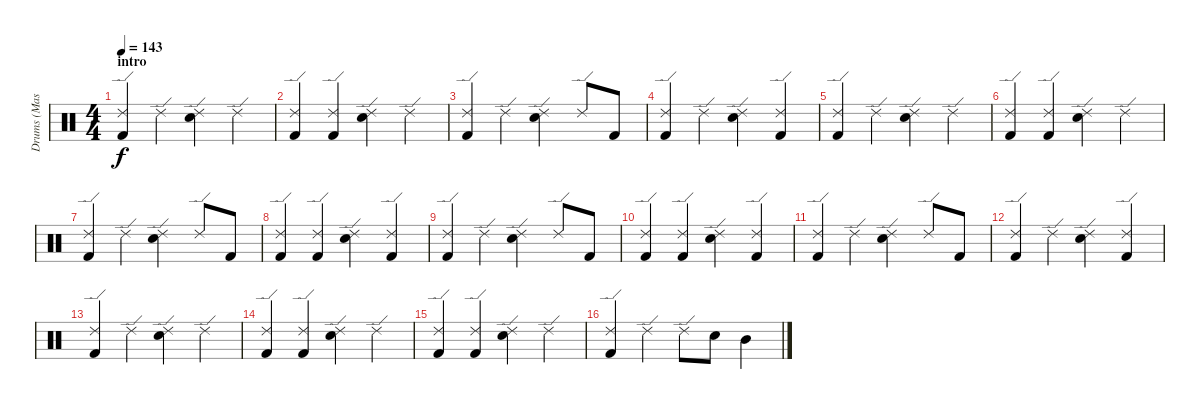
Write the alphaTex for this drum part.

\track ("Drums (Mason)" "Drums (Mas") {instrument percussion}
\staff {score}
\articulation defaults
\ts (4 4)
\section ("" "intro")
\tempo 143
\clef neutral
\ks c
("Ride (edge) 2" "Kick (hit) 2").4{dy f} "Ride (edge) 2".4 ("Ride (edge) 2" "Electric Snare (hit)").4 "Ride (edge) 2".4 |
("Ride (edge) 2" "Kick (hit) 2").4 ("Ride (edge) 2" "Kick (hit) 2").4 ("Ride (edge) 2" "Electric Snare (hit)").4 "Ride (edge) 2".4 |
("Ride (edge) 2" "Kick (hit) 2").4 "Ride (edge) 2".4 ("Ride (edge) 2" "Electric Snare (hit)").4 "Ride (edge) 2".8 "Kick (hit) 2".8 |
("Ride (edge) 2" "Kick (hit) 2").4 "Ride (edge) 2".4 ("Ride (edge) 2" "Electric Snare (hit)").4 ("Ride (edge) 2" "Kick (hit) 2").4 |
("Ride (edge) 2" "Kick (hit) 2").4 "Ride (edge) 2".4 ("Ride (edge) 2" "Electric Snare (hit)").4 "Ride (edge) 2".4 |
("Ride (edge) 2" "Kick (hit) 2").4 ("Ride (edge) 2" "Kick (hit) 2").4 ("Ride (edge) 2" "Electric Snare (hit)").4 "Ride (edge) 2".4 |
("Ride (edge) 2" "Kick (hit) 2").4 "Ride (edge) 2".4 ("Ride (edge) 2" "Electric Snare (hit)").4 "Ride (edge) 2".8 "Kick (hit) 2".8 |
("Ride (edge) 2" "Kick (hit) 2").4 ("Ride (edge) 2" "Kick (hit) 2").4 ("Ride (edge) 2" "Electric Snare (hit)").4 ("Ride (edge) 2" "Kick (hit) 2").4 |
("Ride (edge) 2" "Kick (hit) 2").4 "Ride (edge) 2".4 ("Ride (edge) 2" "Electric Snare (hit)").4 "Ride (edge) 2".8 "Kick (hit) 2".8 |
("Ride (edge) 2" "Kick (hit) 2").4 ("Ride (edge) 2" "Kick (hit) 2").4 ("Ride (edge) 2" "Electric Snare (hit)").4 ("Ride (edge) 2" "Kick (hit) 2").4 |
("Ride (edge) 2" "Kick (hit) 2").4 "Ride (edge) 2".4 ("Ride (edge) 2" "Electric Snare (hit)").4 "Ride (edge) 2".8 "Kick (hit) 2".8 |
("Ride (edge) 2" "Kick (hit) 2").4 "Ride (edge) 2".4 ("Ride (edge) 2" "Electric Snare (hit)").4 ("Ride (edge) 2" "Kick (hit) 2").4 |
("Ride (edge) 2" "Kick (hit) 2").4 "Ride (edge) 2".4 ("Ride (edge) 2" "Electric Snare (hit)").4 "Ride (edge) 2".4 |
("Ride (edge) 2" "Kick (hit) 2").4 ("Ride (edge) 2" "Kick (hit) 2").4 ("Ride (edge) 2" "Electric Snare (hit)").4 "Ride (edge) 2".4 |
("Ride (edge) 2" "Kick (hit) 2").4 ("Ride (edge) 2" "Kick (hit) 2").4 ("Ride (edge) 2" "Electric Snare (hit)").4 "Ride (edge) 2".4 |
("Ride (edge) 2" "Kick (hit) 2").4 "Ride (edge) 2".4 "Ride (edge) 2".8 "Electric Snare (hit)".8 "Mid Tom (hit)".4
